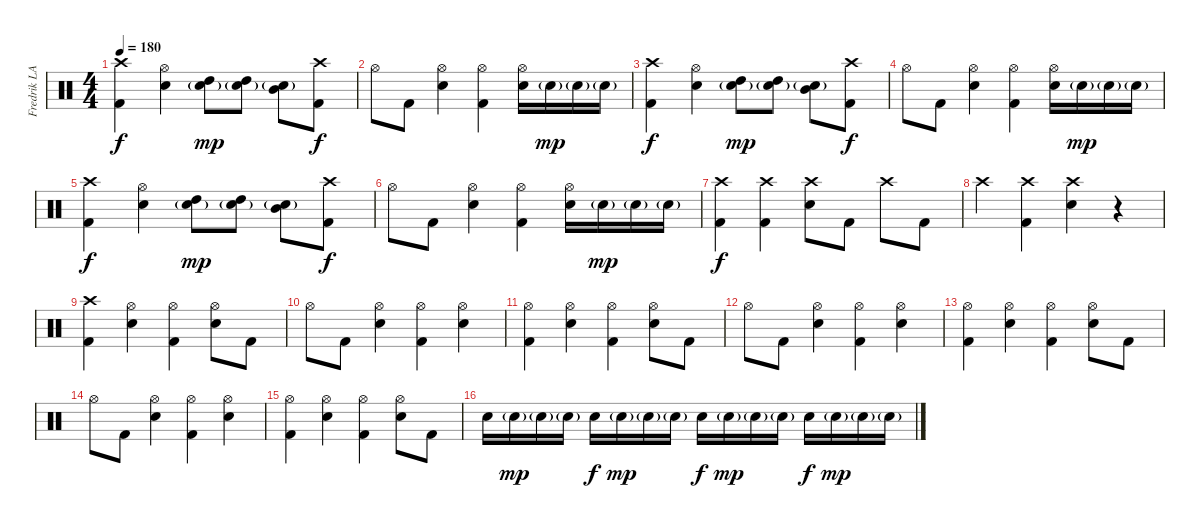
\track ("Fredrik LARZON" "Fredrik LA") {instrument percussion}
\staff {score}
\articulation defaults
\ts (4 4)
\tempo 180
\clef neutral
\ks c
("Crash high (hit)" "Kick (hit) 2").4{dy f} ("Hi-Hat (open)" "Electric Snare (hit)").4 ("Electric Snare (hit)"{g} "High Tom (hit)").8{dy mp} ("Electric Snare (hit)"{g} "High Tom (hit)").8 ("Electric Snare (hit)"{g} "Mid Tom (hit)").8 ("Crash high (hit)" "Kick (hit) 2").8{dy f} |
"Hi-Hat (open)".8 "Kick (hit) 2".8 ("Hi-Hat (open)" "Electric Snare (hit)").4 ("Hi-Hat (open)" "Kick (hit) 2").4 ("Hi-Hat (open)" "Electric Snare (hit)").16 "Electric Snare (hit)"{g}.16{dy mp} "Electric Snare (hit)"{g}.16 "Electric Snare (hit)"{g}.16 |
("Crash high (hit)" "Kick (hit) 2").4{dy f} ("Hi-Hat (open)" "Electric Snare (hit)").4 ("Electric Snare (hit)"{g} "High Tom (hit)").8{dy mp} ("Electric Snare (hit)"{g} "High Tom (hit)").8 ("Electric Snare (hit)"{g} "Mid Tom (hit)").8 ("Crash high (hit)" "Kick (hit) 2").8{dy f} |
"Hi-Hat (open)".8 "Kick (hit) 2".8 ("Hi-Hat (open)" "Electric Snare (hit)").4 ("Hi-Hat (open)" "Kick (hit) 2").4 ("Hi-Hat (open)" "Electric Snare (hit)").16 "Electric Snare (hit)"{g}.16{dy mp} "Electric Snare (hit)"{g}.16 "Electric Snare (hit)"{g}.16 |
("Crash high (hit)" "Kick (hit) 2").4{dy f} ("Hi-Hat (open)" "Electric Snare (hit)").4 ("Electric Snare (hit)"{g} "High Tom (hit)").8{dy mp} ("Electric Snare (hit)"{g} "High Tom (hit)").8 ("Electric Snare (hit)"{g} "Mid Tom (hit)").8 ("Crash high (hit)" "Kick (hit) 2").8{dy f} |
"Hi-Hat (open)".8 "Kick (hit) 2".8 ("Hi-Hat (open)" "Electric Snare (hit)").4 ("Hi-Hat (open)" "Kick (hit) 2").4 ("Hi-Hat (open)" "Electric Snare (hit)").16 "Electric Snare (hit)"{g}.16{dy mp} "Electric Snare (hit)"{g}.16 "Electric Snare (hit)"{g}.16 |
("Crash high (hit)" "Kick (hit) 2").4{dy f} ("Crash high (hit)" "Kick (hit) 2").4 ("Crash high (hit)" "Electric Snare (hit)").8 "Kick (hit) 2".8 "Crash high (hit)".8 "Kick (hit) 2".8 |
"Crash high (hit)".4 ("Crash high (hit)" "Kick (hit) 2").4 ("Crash high (hit)" "Electric Snare (hit)").4 r.4 |
("Crash high (hit)" "Kick (hit) 2").4 ("Hi-Hat (open)" "Electric Snare (hit)").4 ("Hi-Hat (open)" "Kick (hit) 2").4 ("Hi-Hat (open)" "Electric Snare (hit)").8 "Kick (hit) 2".8 |
"Hi-Hat (open)".8 "Kick (hit) 2".8 ("Hi-Hat (open)" "Electric Snare (hit)").4 ("Hi-Hat (open)" "Kick (hit) 2").4 ("Hi-Hat (open)" "Electric Snare (hit)").4 |
("Hi-Hat (open)" "Kick (hit) 2").4 ("Hi-Hat (open)" "Electric Snare (hit)").4 ("Hi-Hat (open)" "Kick (hit) 2").4 ("Hi-Hat (open)" "Electric Snare (hit)").8 "Kick (hit) 2".8 |
"Hi-Hat (open)".8 "Kick (hit) 2".8 ("Hi-Hat (open)" "Electric Snare (hit)").4 ("Hi-Hat (open)" "Kick (hit) 2").4 ("Hi-Hat (open)" "Electric Snare (hit)").4 |
("Hi-Hat (open)" "Kick (hit) 2").4 ("Hi-Hat (open)" "Electric Snare (hit)").4 ("Hi-Hat (open)" "Kick (hit) 2").4 ("Hi-Hat (open)" "Electric Snare (hit)").8 "Kick (hit) 2".8 |
"Hi-Hat (open)".8 "Kick (hit) 2".8 ("Hi-Hat (open)" "Electric Snare (hit)").4 ("Hi-Hat (open)" "Kick (hit) 2").4 ("Hi-Hat (open)" "Electric Snare (hit)").4 |
("Hi-Hat (open)" "Kick (hit) 2").4 ("Hi-Hat (open)" "Electric Snare (hit)").4 ("Hi-Hat (open)" "Kick (hit) 2").4 ("Hi-Hat (open)" "Electric Snare (hit)").8 "Kick (hit) 2".8 |
"Electric Snare (hit)".16 "Electric Snare (hit)"{g}.16{dy mp} "Electric Snare (hit)"{g}.16 "Electric Snare (hit)"{g}.16 "Electric Snare (hit)".16{dy f} "Electric Snare (hit)"{g}.16{dy mp} "Electric Snare (hit)"{g}.16 "Electric Snare (hit)"{g}.16 "Electric Snare (hit)".16{dy f} "Electric Snare (hit)"{g}.16{dy mp} "Electric Snare (hit)"{g}.16 "Electric Snare (hit)"{g}.16 "Electric Snare (hit)".16{dy f} "Electric Snare (hit)"{g}.16{dy mp} "Electric Snare (hit)"{g}.16 "Electric Snare (hit)"{g}.16
